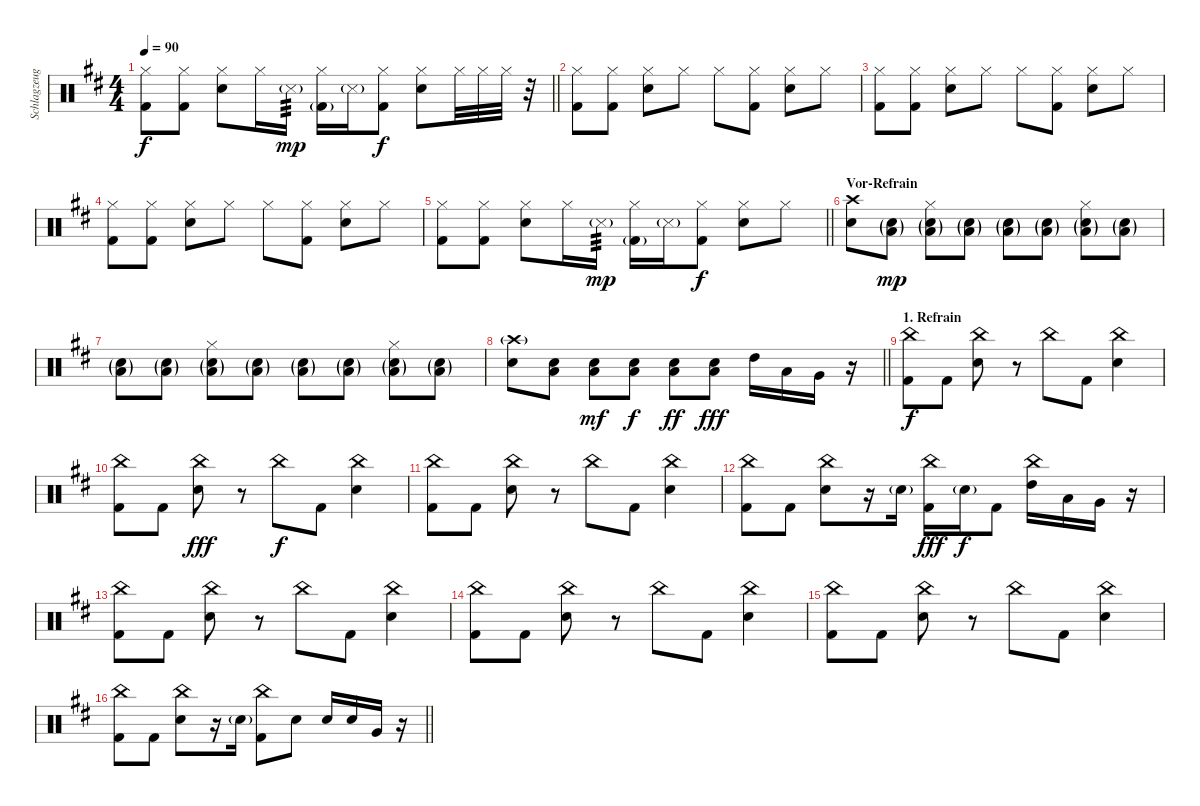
\track ("Schlagzeug" "Schlagzeug") {instrument percussion}
\staff {score}
\articulation defaults
\ts (4 4)
\tempo 90
\clef neutral
\barLineRight lightlight
\ks d
("Hi-Hat (closed)" "Kick (hit) 2").8{dy f} ("Hi-Hat (closed)" "Kick (hit) 2").8 ("Hi-Hat (closed)" "Electric Snare (hit)").8 "Hi-Hat (closed)".16 "Snare (side stick) 3"{g}.16{tp 3 dy mp} ("Hi-Hat (closed)" "Kick (hit) 2"{g}).16 "Snare (side stick) 3"{g}.16 ("Hi-Hat (closed)" "Kick (hit) 2").8{dy f} ("Hi-Hat (closed)" "Electric Snare (hit)").8 "Hi-Hat (closed)".32 "Hi-Hat (closed)".32 "Hi-Hat (closed)".32 r.32 |
("Hi-Hat (closed)" "Kick (hit) 2").8 ("Hi-Hat (closed)" "Kick (hit) 2").8 ("Hi-Hat (closed)" "Electric Snare (hit)").8 "Hi-Hat (closed)".8 "Hi-Hat (closed)".8 ("Hi-Hat (closed)" "Kick (hit) 2").8 ("Hi-Hat (closed)" "Electric Snare (hit)").8 "Hi-Hat (closed)".8 |
("Hi-Hat (closed)" "Kick (hit) 2").8 ("Hi-Hat (closed)" "Kick (hit) 2").8 ("Hi-Hat (closed)" "Electric Snare (hit)").8 "Hi-Hat (closed)".8 "Hi-Hat (closed)".8 ("Hi-Hat (closed)" "Kick (hit) 2").8 ("Hi-Hat (closed)" "Electric Snare (hit)").8 "Hi-Hat (closed)".8 |
("Hi-Hat (closed)" "Kick (hit) 2").8 ("Hi-Hat (closed)" "Kick (hit) 2").8 ("Hi-Hat (closed)" "Electric Snare (hit)").8 "Hi-Hat (closed)".8 "Hi-Hat (closed)".8 ("Hi-Hat (closed)" "Kick (hit) 2").8 ("Hi-Hat (closed)" "Electric Snare (hit)").8 "Hi-Hat (closed)".8 |
\barLineRight lightlight
("Hi-Hat (closed)" "Kick (hit) 2").8 ("Hi-Hat (closed)" "Kick (hit) 2").8 ("Hi-Hat (closed)" "Electric Snare (hit)").8 "Hi-Hat (closed)".16 "Snare (side stick) 3"{g}.16{tp 3 dy mp} ("Hi-Hat (closed)" "Kick (hit) 2"{g}).16 "Snare (side stick) 3"{g}.16 ("Hi-Hat (closed)" "Kick (hit) 2").8{dy f} ("Hi-Hat (closed)" "Electric Snare (hit)").8 "Hi-Hat (closed)".8 |
\section ("" "Vor-Refrain")
("Crash high (hit)" "Electric Snare (hit)").8 ("Electric Snare (hit)"{g} "Low Tom (hit)"{g}).8{dy mp} ("Hi-Hat (closed)" "Electric Snare (hit)"{g} "Low Tom (hit)"{g}).8 ("Electric Snare (hit)"{g} "Low Tom (hit)"{g}).8 ("Electric Snare (hit)"{g} "Low Tom (hit)"{g}).8 ("Electric Snare (hit)"{g} "Low Tom (hit)"{g}).8 ("Hi-Hat (closed)" "Electric Snare (hit)"{g} "Low Tom (hit)"{g}).8 ("Electric Snare (hit)"{g} "Low Tom (hit)"{g}).8 |
("Electric Snare (hit)"{g} "Low Tom (hit)"{g}).8 ("Electric Snare (hit)"{g} "Low Tom (hit)"{g}).8 ("Hi-Hat (closed)" "Electric Snare (hit)"{g} "Low Tom (hit)"{g}).8 ("Electric Snare (hit)"{g} "Low Tom (hit)"{g}).8 ("Electric Snare (hit)"{g} "Low Tom (hit)"{g}).8 ("Electric Snare (hit)"{g} "Low Tom (hit)"{g}).8 ("Hi-Hat (closed)" "Electric Snare (hit)"{g} "Low Tom (hit)"{g}).8 ("Electric Snare (hit)"{g} "Low Tom (hit)"{g}).8 |
\barLineRight lightlight
("Crash high (hit)"{g} "Electric Snare (hit)").8 ("Electric Snare (hit)" "Low Tom (hit)").8 ("Electric Snare (hit)" "Low Tom (hit)").8{dy mf} ("Electric Snare (hit)" "Low Tom (hit)").8{dy f} ("Electric Snare (hit)" "Low Tom (hit)").8{dy ff} ("Electric Snare (hit)" "Low Tom (hit)").8{dy fff} "High Tom (hit)".16 "Low Tom (hit)".16 "Very Low Tom (hit)".16 r.16 |
\section ("" "1. Refrain")
("China (hit)" "Kick (hit) 2").8{dy f} "Kick (hit) 2".8 ("China (hit)" "Electric Snare (hit)").8 r.8 "China (hit)".8 "Kick (hit) 2".8 ("China (hit)" "Electric Snare (hit)").4 |
("China (hit)" "Kick (hit) 2").8 "Kick (hit) 2".8 ("China (hit)" "Electric Snare (hit)").8{dy fff} r.8 "China (hit)".8{dy f} "Kick (hit) 2".8 ("China (hit)" "Electric Snare (hit)").4 |
("China (hit)" "Kick (hit) 2").8 "Kick (hit) 2".8 ("China (hit)" "Electric Snare (hit)").8 r.8 "China (hit)".8 "Kick (hit) 2".8 ("China (hit)" "Electric Snare (hit)").4 |
("China (hit)" "Kick (hit) 2").8 "Kick (hit) 2".8 ("China (hit)" "Electric Snare (hit)").8 r.16 "Electric Snare (hit)"{g}.16 ("China (hit)" "Kick (hit) 2").16{dy fff} "Electric Snare (hit)"{g}.16{dy f} "Kick (hit) 2".8 ("China (hit)" "High Tom (hit)").16 "Low Tom (hit)".16 "Very Low Tom (hit)".16 r.16 |
("China (hit)" "Kick (hit) 2").8 "Kick (hit) 2".8 ("China (hit)" "Electric Snare (hit)").8 r.8 "China (hit)".8 "Kick (hit) 2".8 ("China (hit)" "Electric Snare (hit)").4 |
("China (hit)" "Kick (hit) 2").8 "Kick (hit) 2".8 ("China (hit)" "Electric Snare (hit)").8 r.8 "China (hit)".8 "Kick (hit) 2".8 ("China (hit)" "Electric Snare (hit)").4 |
("China (hit)" "Kick (hit) 2").8 "Kick (hit) 2".8 ("China (hit)" "Electric Snare (hit)").8 r.8 "China (hit)".8 "Kick (hit) 2".8 ("China (hit)" "Electric Snare (hit)").4 |
\barLineRight lightlight
("China (hit)" "Kick (hit) 2").8 "Kick (hit) 2".8 ("China (hit)" "Electric Snare (hit)").8 r.16 "Electric Snare (hit)"{g}.16 ("China (hit)" "Kick (hit) 2").8 "Electric Snare (hit)".8 "Electric Snare (hit)".16 "Electric Snare (hit)".16 "Very Low Tom (hit)".16 r.16
